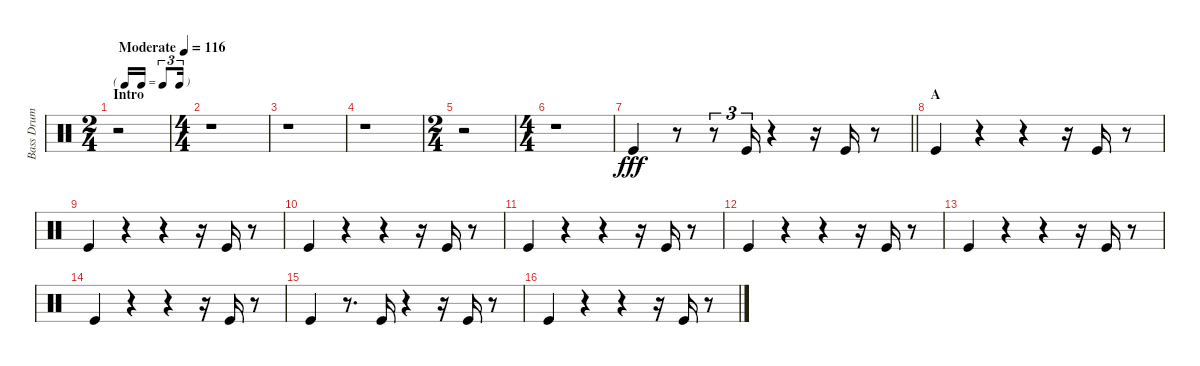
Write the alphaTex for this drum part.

\track ("Bass Drum" "Bass Drum") {instrument percussion}
\staff {score}
\articulation defaults
\ts (2 4)
\tf triplet16th
\section ("" "Intro")
\tempo (116 "Moderate")
\clef neutral
\ks c
r.2{dy fff} |
\ts (4 4)
r.1 |
r.1 |
r.1 |
\ts (2 4)
r.2 |
\ts (4 4)
r.1 |
\barLineRight lightlight "Kick (hit)".4
r.8 r.8{tu (3 2)} "Kick (hit)".16{tu (3 2)} r.4 r.16 "Kick (hit)".16 r.8 |
\section ("" "A")
"Kick (hit)".4 r.4 r.4 r.16 "Kick (hit)".16 r.8 |
"Kick (hit)".4 r.4 r.4 r.16 "Kick (hit)".16 r.8 |
"Kick (hit)".4 r.4 r.4 r.16 "Kick (hit)".16 r.8 |
"Kick (hit)".4 r.4 r.4 r.16 "Kick (hit)".16 r.8 |
"Kick (hit)".4 r.4 r.4 r.16 "Kick (hit)".16 r.8 |
"Kick (hit)".4 r.4 r.4 r.16 "Kick (hit)".16 r.8 |
"Kick (hit)".4 r.4 r.4 r.16 "Kick (hit)".16 r.8 |
"Kick (hit)".4 r.8{d} "Kick (hit)".16 r.4 r.16 "Kick (hit)".16 r.8 |
"Kick (hit)".4 r.4 r.4 r.16 "Kick (hit)".16 r.8
